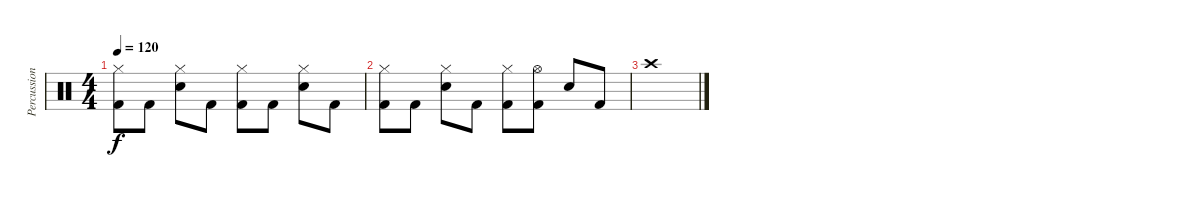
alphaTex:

\track ("Percussions" "Percussion") {instrument percussion}
\staff {score}
\articulation defaults
\ts (4 4)
\tempo 120
\clef neutral
\ks c
("Hi-Hat (closed)" "Kick (hit) 2").8{dy f} "Kick (hit) 2".8 ("Hi-Hat (closed)" "Electric Snare (hit)").8 "Kick (hit) 2".8 ("Hi-Hat (closed)" "Kick (hit) 2").8 "Kick (hit) 2".8 ("Hi-Hat (closed)" "Electric Snare (hit)").8 "Kick (hit) 2".8 |
("Hi-Hat (closed)" "Kick (hit) 2").8 "Kick (hit) 2".8 ("Hi-Hat (closed)" "Electric Snare (hit)").8 "Kick (hit) 2".8 ("Hi-Hat (closed)" "Kick (hit) 2").8 ("Hi-Hat (open)" "Kick (hit) 2").8 "Electric Snare (hit)".8 "Kick (hit) 2".8 |
"Crash high (hit)".1
